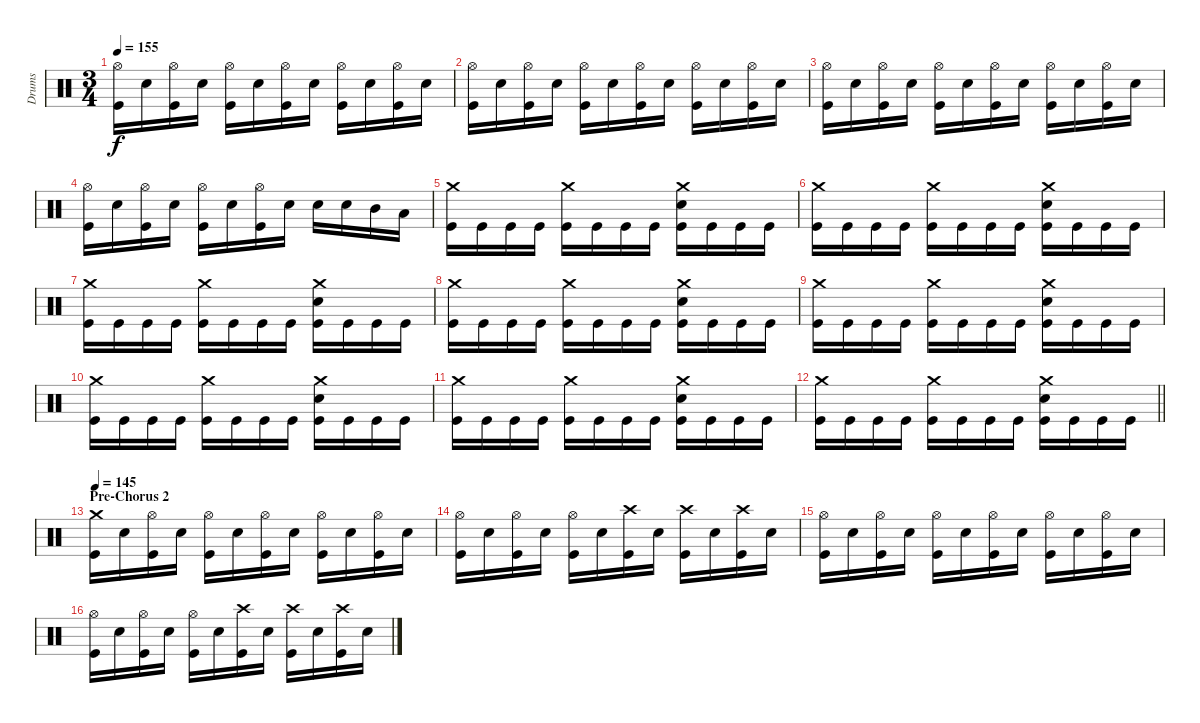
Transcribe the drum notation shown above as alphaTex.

\track ("Drums" "Drums") {instrument percussion}
\staff {score}
\articulation defaults
\ts (3 4)
\tempo 155
\clef neutral
\ks c
("Hi-Hat (open)" "Kick (hit)").16{dy f} "Snare (hit) 2".16 ("Hi-Hat (open)" "Kick (hit)").16 "Snare (hit) 2".16 ("Hi-Hat (open)" "Kick (hit)").16 "Snare (hit) 2".16 ("Hi-Hat (open)" "Kick (hit)").16 "Snare (hit) 2".16 ("Hi-Hat (open)" "Kick (hit)").16 "Snare (hit) 2".16 ("Hi-Hat (open)" "Kick (hit)").16 "Snare (hit) 2".16 |
("Hi-Hat (open)" "Kick (hit)").16 "Snare (hit) 2".16 ("Hi-Hat (open)" "Kick (hit)").16 "Snare (hit) 2".16 ("Hi-Hat (open)" "Kick (hit)").16 "Snare (hit) 2".16 ("Hi-Hat (open)" "Kick (hit)").16 "Snare (hit) 2".16 ("Hi-Hat (open)" "Kick (hit)").16 "Snare (hit) 2".16 ("Hi-Hat (open)" "Kick (hit)").16 "Snare (hit) 2".16 |
("Hi-Hat (open)" "Kick (hit)").16 "Snare (hit) 2".16 ("Hi-Hat (open)" "Kick (hit)").16 "Snare (hit) 2".16 ("Hi-Hat (open)" "Kick (hit)").16 "Snare (hit) 2".16 ("Hi-Hat (open)" "Kick (hit)").16 "Snare (hit) 2".16 ("Hi-Hat (open)" "Kick (hit)").16 "Snare (hit) 2".16 ("Hi-Hat (open)" "Kick (hit)").16 "Snare (hit) 2".16 |
("Hi-Hat (open)" "Kick (hit)").16 "Snare (hit) 2".16 ("Hi-Hat (open)" "Kick (hit)").16 "Snare (hit) 2".16 ("Hi-Hat (open)" "Kick (hit)").16 "Snare (hit) 2".16 ("Hi-Hat (open)" "Kick (hit)").16 "Snare (hit) 2".16 "Snare (hit) 2".16 "Snare (hit) 2".16 "Mid Tom (hit)".16 "Low Tom (hit)".16 |
("Crash medium (hit)" "Kick (hit)").16 "Kick (hit)".16 "Kick (hit)".16 "Kick (hit)".16 ("Crash medium (hit)" "Kick (hit)").16 "Kick (hit)".16 "Kick (hit)".16 "Kick (hit)".16 ("Crash medium (hit)" "Snare (hit) 2" "Kick (hit)").16 "Kick (hit)".16 "Kick (hit)".16 "Kick (hit)".16 |
("Crash medium (hit)" "Kick (hit)").16 "Kick (hit)".16 "Kick (hit)".16 "Kick (hit)".16 ("Crash medium (hit)" "Kick (hit)").16 "Kick (hit)".16 "Kick (hit)".16 "Kick (hit)".16 ("Crash medium (hit)" "Snare (hit) 2" "Kick (hit)").16 "Kick (hit)".16 "Kick (hit)".16 "Kick (hit)".16 |
("Crash medium (hit)" "Kick (hit)").16 "Kick (hit)".16 "Kick (hit)".16 "Kick (hit)".16 ("Crash medium (hit)" "Kick (hit)").16 "Kick (hit)".16 "Kick (hit)".16 "Kick (hit)".16 ("Crash medium (hit)" "Snare (hit) 2" "Kick (hit)").16 "Kick (hit)".16 "Kick (hit)".16 "Kick (hit)".16 |
("Crash medium (hit)" "Kick (hit)").16 "Kick (hit)".16 "Kick (hit)".16 "Kick (hit)".16 ("Crash medium (hit)" "Kick (hit)").16 "Kick (hit)".16 "Kick (hit)".16 "Kick (hit)".16 ("Crash medium (hit)" "Snare (hit) 2" "Kick (hit)").16 "Kick (hit)".16 "Kick (hit)".16 "Kick (hit)".16 |
("Crash medium (hit)" "Kick (hit)").16 "Kick (hit)".16 "Kick (hit)".16 "Kick (hit)".16 ("Crash medium (hit)" "Kick (hit)").16 "Kick (hit)".16 "Kick (hit)".16 "Kick (hit)".16 ("Crash medium (hit)" "Snare (hit) 2" "Kick (hit)").16 "Kick (hit)".16 "Kick (hit)".16 "Kick (hit)".16 |
("Crash medium (hit)" "Kick (hit)").16 "Kick (hit)".16 "Kick (hit)".16 "Kick (hit)".16 ("Crash medium (hit)" "Kick (hit)").16 "Kick (hit)".16 "Kick (hit)".16 "Kick (hit)".16 ("Crash medium (hit)" "Snare (hit) 2" "Kick (hit)").16 "Kick (hit)".16 "Kick (hit)".16 "Kick (hit)".16 |
("Crash medium (hit)" "Kick (hit)").16 "Kick (hit)".16 "Kick (hit)".16 "Kick (hit)".16 ("Crash medium (hit)" "Kick (hit)").16 "Kick (hit)".16 "Kick (hit)".16 "Kick (hit)".16 ("Crash medium (hit)" "Snare (hit) 2" "Kick (hit)").16 "Kick (hit)".16 "Kick (hit)".16 "Kick (hit)".16 |
\barLineRight lightlight
("Crash medium (hit)" "Kick (hit)").16 "Kick (hit)".16 "Kick (hit)".16 "Kick (hit)".16 ("Crash medium (hit)" "Kick (hit)").16 "Kick (hit)".16 "Kick (hit)".16 "Kick (hit)".16 ("Crash medium (hit)" "Snare (hit) 2" "Kick (hit)").16 "Kick (hit)".16 "Kick (hit)".16 "Kick (hit)".16 |
\section ("" "Pre-Chorus 2")
\tempo 145
("Crash medium (hit)" "Kick (hit)").16 "Snare (hit) 2".16 ("Hi-Hat (open)" "Kick (hit)").16 "Snare (hit) 2".16 ("Hi-Hat (open)" "Kick (hit)").16 "Snare (hit) 2".16 ("Hi-Hat (open)" "Kick (hit)").16 "Snare (hit) 2".16 ("Hi-Hat (open)" "Kick (hit)").16 "Snare (hit) 2".16 ("Hi-Hat (open)" "Kick (hit)").16 "Snare (hit) 2".16 |
("Hi-Hat (open)" "Kick (hit)").16 "Snare (hit) 2".16 ("Hi-Hat (open)" "Kick (hit)").16 "Snare (hit) 2".16 ("Hi-Hat (open)" "Kick (hit)").16 "Snare (hit) 2".16 ("Crash high (hit)" "Kick (hit)").16 "Snare (hit) 2".16 ("Crash high (hit)" "Kick (hit)").16 "Snare (hit) 2".16 ("Crash high (hit)" "Kick (hit)").16 "Snare (hit) 2".16 |
("Hi-Hat (open)" "Kick (hit)").16 "Snare (hit) 2".16 ("Hi-Hat (open)" "Kick (hit)").16 "Snare (hit) 2".16 ("Hi-Hat (open)" "Kick (hit)").16 "Snare (hit) 2".16 ("Hi-Hat (open)" "Kick (hit)").16 "Snare (hit) 2".16 ("Hi-Hat (open)" "Kick (hit)").16 "Snare (hit) 2".16 ("Hi-Hat (open)" "Kick (hit)").16 "Snare (hit) 2".16 |
("Hi-Hat (open)" "Kick (hit)").16 "Snare (hit) 2".16 ("Hi-Hat (open)" "Kick (hit)").16 "Snare (hit) 2".16 ("Hi-Hat (open)" "Kick (hit)").16 "Snare (hit) 2".16 ("Crash high (hit)" "Kick (hit)").16 "Snare (hit) 2".16 ("Crash high (hit)" "Kick (hit)").16 "Snare (hit) 2".16 ("Crash high (hit)" "Kick (hit)").16 "Snare (hit) 2".16
